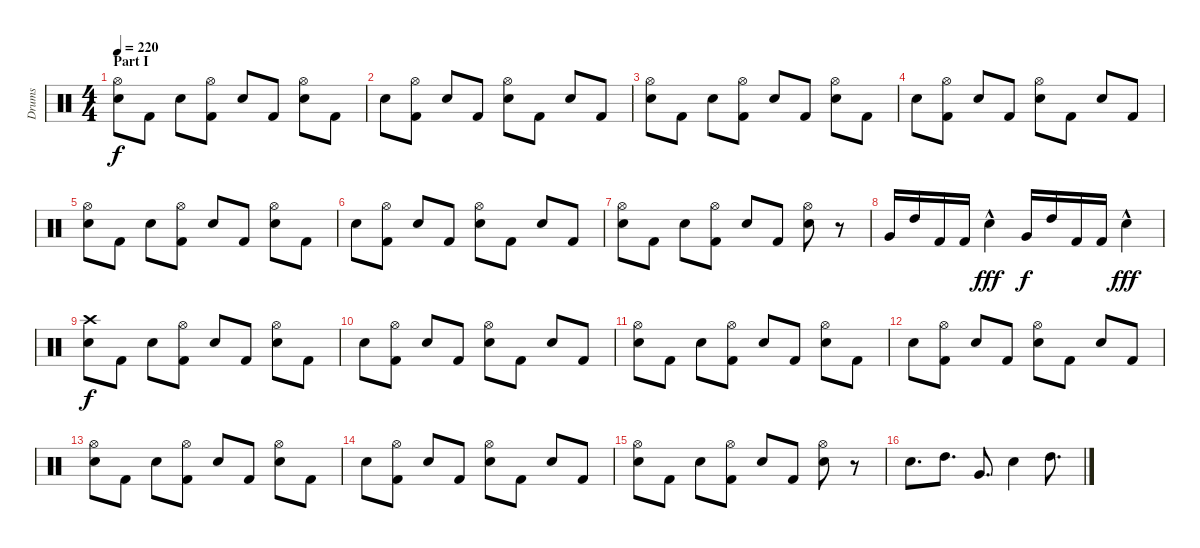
\track ("Drums" "Drums") {instrument percussion}
\staff {score}
\articulation defaults
\ts (4 4)
\section ("" "Part I")
\tempo 220
\clef neutral
\ks c
("Hi-Hat (open)" "Electric Snare (hit)").8{dy f} "Kick (hit) 2".8 "Electric Snare (hit)".8 ("Hi-Hat (open)" "Kick (hit) 2").8 "Electric Snare (hit)".8 "Kick (hit) 2".8 ("Hi-Hat (open)" "Electric Snare (hit)").8 "Kick (hit) 2".8 |
"Electric Snare (hit)".8 ("Hi-Hat (open)" "Kick (hit) 2").8 "Electric Snare (hit)".8 "Kick (hit) 2".8 ("Hi-Hat (open)" "Electric Snare (hit)").8 "Kick (hit) 2".8 "Electric Snare (hit)".8 "Kick (hit) 2".8 |
("Hi-Hat (open)" "Electric Snare (hit)").8 "Kick (hit) 2".8 "Electric Snare (hit)".8 ("Hi-Hat (open)" "Kick (hit) 2").8 "Electric Snare (hit)".8 "Kick (hit) 2".8 ("Hi-Hat (open)" "Electric Snare (hit)").8 "Kick (hit) 2".8 |
"Electric Snare (hit)".8 ("Hi-Hat (open)" "Kick (hit) 2").8 "Electric Snare (hit)".8 "Kick (hit) 2".8 ("Hi-Hat (open)" "Electric Snare (hit)").8 "Kick (hit) 2".8 "Electric Snare (hit)".8 "Kick (hit) 2".8 |
("Hi-Hat (open)" "Electric Snare (hit)").8 "Kick (hit) 2".8 "Electric Snare (hit)".8 ("Hi-Hat (open)" "Kick (hit) 2").8 "Electric Snare (hit)".8 "Kick (hit) 2".8 ("Hi-Hat (open)" "Electric Snare (hit)").8 "Kick (hit) 2".8 |
"Electric Snare (hit)".8 ("Hi-Hat (open)" "Kick (hit) 2").8 "Electric Snare (hit)".8 "Kick (hit) 2".8 ("Hi-Hat (open)" "Electric Snare (hit)").8 "Kick (hit) 2".8 "Electric Snare (hit)".8 "Kick (hit) 2".8 |
("Hi-Hat (open)" "Electric Snare (hit)").8 "Kick (hit) 2".8 "Electric Snare (hit)".8 ("Hi-Hat (open)" "Kick (hit) 2").8 "Electric Snare (hit)".8 "Kick (hit) 2".8 ("Hi-Hat (open)" "Electric Snare (hit)").8 r.8 |
"Very Low Tom (hit)".16 "High Tom (hit)".16 "Kick (hit) 2".16 "Kick (hit) 2".16 "Electric Snare (hit)"{hac}.4{dy fff} "Very Low Tom (hit)".16{dy f} "High Tom (hit)".16 "Kick (hit) 2".16 "Kick (hit) 2".16 "Electric Snare (hit)"{hac}.4{dy fff} |
("Crash high (hit)" "Electric Snare (hit)").8{dy f} "Kick (hit) 2".8 "Electric Snare (hit)".8 ("Hi-Hat (open)" "Kick (hit) 2").8 "Electric Snare (hit)".8 "Kick (hit) 2".8 ("Hi-Hat (open)" "Electric Snare (hit)").8 "Kick (hit) 2".8 |
"Electric Snare (hit)".8 ("Hi-Hat (open)" "Kick (hit) 2").8 "Electric Snare (hit)".8 "Kick (hit) 2".8 ("Hi-Hat (open)" "Electric Snare (hit)").8 "Kick (hit) 2".8 "Electric Snare (hit)".8 "Kick (hit) 2".8 |
("Hi-Hat (open)" "Electric Snare (hit)").8 "Kick (hit) 2".8 "Electric Snare (hit)".8 ("Hi-Hat (open)" "Kick (hit) 2").8 "Electric Snare (hit)".8 "Kick (hit) 2".8 ("Hi-Hat (open)" "Electric Snare (hit)").8 "Kick (hit) 2".8 |
"Electric Snare (hit)".8 ("Hi-Hat (open)" "Kick (hit) 2").8 "Electric Snare (hit)".8 "Kick (hit) 2".8 ("Hi-Hat (open)" "Electric Snare (hit)").8 "Kick (hit) 2".8 "Electric Snare (hit)".8 "Kick (hit) 2".8 |
("Hi-Hat (open)" "Electric Snare (hit)").8 "Kick (hit) 2".8 "Electric Snare (hit)".8 ("Hi-Hat (open)" "Kick (hit) 2").8 "Electric Snare (hit)".8 "Kick (hit) 2".8 ("Hi-Hat (open)" "Electric Snare (hit)").8 "Kick (hit) 2".8 |
"Electric Snare (hit)".8 ("Hi-Hat (open)" "Kick (hit) 2").8 "Electric Snare (hit)".8 "Kick (hit) 2".8 ("Hi-Hat (open)" "Electric Snare (hit)").8 "Kick (hit) 2".8 "Electric Snare (hit)".8 "Kick (hit) 2".8 |
("Hi-Hat (open)" "Electric Snare (hit)").8 "Kick (hit) 2".8 "Electric Snare (hit)".8 ("Hi-Hat (open)" "Kick (hit) 2").8 "Electric Snare (hit)".8 "Kick (hit) 2".8 ("Hi-Hat (open)" "Electric Snare (hit)").8 r.8 |
"Electric Snare (hit)".8{d} "High Tom (hit)".8{d} "Very Low Tom (hit)".8{d} "Electric Snare (hit)".4 "High Tom (hit)".8{d}
